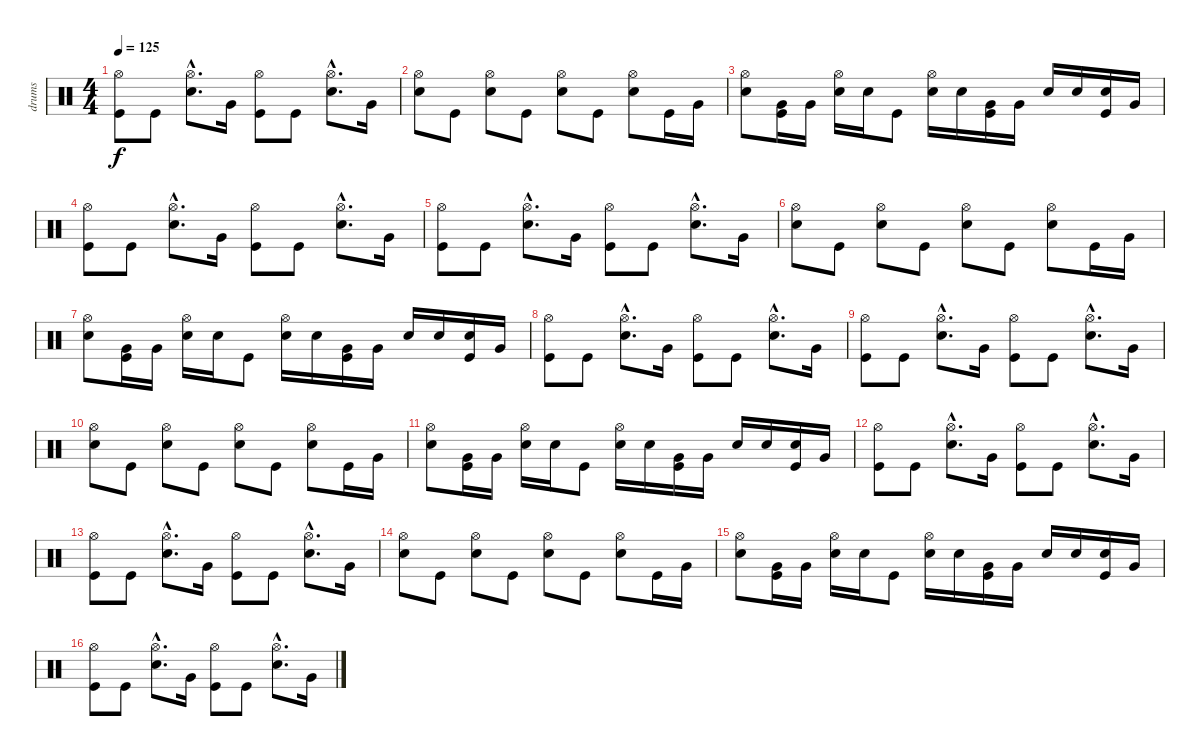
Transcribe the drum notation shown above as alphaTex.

\track ("drums" "drums") {instrument percussion}
\staff {score}
\articulation defaults
\ts (4 4)
\tempo 125
\clef neutral
\ks c
("Hi-Hat (open)" "Kick (hit)").8{dy f} "Kick (hit)".8 ("Hi-Hat (open)"{hac} "Electric Snare (hit)"{hac}).8{d} "Very Low Tom (hit)".16 ("Hi-Hat (open)" "Kick (hit)").8 "Kick (hit)".8 ("Hi-Hat (open)"{hac} "Electric Snare (hit)"{hac}).8{d} "Very Low Tom (hit)".16 |
("Hi-Hat (open)" "Electric Snare (hit)").8 "Kick (hit)".8 ("Hi-Hat (open)" "Electric Snare (hit)").8 "Kick (hit)".8 ("Hi-Hat (open)" "Electric Snare (hit)").8 "Kick (hit)".8 ("Hi-Hat (open)" "Electric Snare (hit)").8 "Kick (hit)".16 "Very Low Tom (hit)".16 |
("Hi-Hat (open)" "Electric Snare (hit)").8 ("Very Low Tom (hit)" "Kick (hit)").16 "Very Low Tom (hit)".16 ("Hi-Hat (open)" "Electric Snare (hit)").16 "Electric Snare (hit)".16 "Kick (hit)".8 ("Hi-Hat (open)" "Electric Snare (hit)").16 "Electric Snare (hit)".16 ("Very Low Tom (hit)" "Kick (hit)").16 "Very Low Tom (hit)".16 "Electric Snare (hit)".16 "Electric Snare (hit)".16 ("Electric Snare (hit)" "Kick (hit)").16 "Very Low Tom (hit)".16 |
("Hi-Hat (open)" "Kick (hit)").8 "Kick (hit)".8 ("Hi-Hat (open)"{hac} "Electric Snare (hit)"{hac}).8{d} "Very Low Tom (hit)".16 ("Hi-Hat (open)" "Kick (hit)").8 "Kick (hit)".8 ("Hi-Hat (open)"{hac} "Electric Snare (hit)"{hac}).8{d} "Very Low Tom (hit)".16 |
("Hi-Hat (open)" "Kick (hit)").8 "Kick (hit)".8 ("Hi-Hat (open)"{hac} "Electric Snare (hit)"{hac}).8{d} "Very Low Tom (hit)".16 ("Hi-Hat (open)" "Kick (hit)").8 "Kick (hit)".8 ("Hi-Hat (open)"{hac} "Electric Snare (hit)"{hac}).8{d} "Very Low Tom (hit)".16 |
("Hi-Hat (open)" "Electric Snare (hit)").8 "Kick (hit)".8 ("Hi-Hat (open)" "Electric Snare (hit)").8 "Kick (hit)".8 ("Hi-Hat (open)" "Electric Snare (hit)").8 "Kick (hit)".8 ("Hi-Hat (open)" "Electric Snare (hit)").8 "Kick (hit)".16 "Very Low Tom (hit)".16 |
("Hi-Hat (open)" "Electric Snare (hit)").8 ("Very Low Tom (hit)" "Kick (hit)").16 "Very Low Tom (hit)".16 ("Hi-Hat (open)" "Electric Snare (hit)").16 "Electric Snare (hit)".16 "Kick (hit)".8 ("Hi-Hat (open)" "Electric Snare (hit)").16 "Electric Snare (hit)".16 ("Very Low Tom (hit)" "Kick (hit)").16 "Very Low Tom (hit)".16 "Electric Snare (hit)".16 "Electric Snare (hit)".16 ("Electric Snare (hit)" "Kick (hit)").16 "Very Low Tom (hit)".16 |
\section ("" "")
("Hi-Hat (open)" "Kick (hit)").8 "Kick (hit)".8 ("Hi-Hat (open)"{hac} "Electric Snare (hit)"{hac}).8{d} "Very Low Tom (hit)".16 ("Hi-Hat (open)" "Kick (hit)").8 "Kick (hit)".8 ("Hi-Hat (open)"{hac} "Electric Snare (hit)"{hac}).8{d} "Very Low Tom (hit)".16 |
("Hi-Hat (open)" "Kick (hit)").8 "Kick (hit)".8 ("Hi-Hat (open)"{hac} "Electric Snare (hit)"{hac}).8{d} "Very Low Tom (hit)".16 ("Hi-Hat (open)" "Kick (hit)").8 "Kick (hit)".8 ("Hi-Hat (open)"{hac} "Electric Snare (hit)"{hac}).8{d} "Very Low Tom (hit)".16 |
("Hi-Hat (open)" "Electric Snare (hit)").8 "Kick (hit)".8 ("Hi-Hat (open)" "Electric Snare (hit)").8 "Kick (hit)".8 ("Hi-Hat (open)" "Electric Snare (hit)").8 "Kick (hit)".8 ("Hi-Hat (open)" "Electric Snare (hit)").8 "Kick (hit)".16 "Very Low Tom (hit)".16 |
("Hi-Hat (open)" "Electric Snare (hit)").8 ("Very Low Tom (hit)" "Kick (hit)").16 "Very Low Tom (hit)".16 ("Hi-Hat (open)" "Electric Snare (hit)").16 "Electric Snare (hit)".16 "Kick (hit)".8 ("Hi-Hat (open)" "Electric Snare (hit)").16 "Electric Snare (hit)".16 ("Very Low Tom (hit)" "Kick (hit)").16 "Very Low Tom (hit)".16 "Electric Snare (hit)".16 "Electric Snare (hit)".16 ("Electric Snare (hit)" "Kick (hit)").16 "Very Low Tom (hit)".16 |
("Hi-Hat (open)" "Kick (hit)").8 "Kick (hit)".8 ("Hi-Hat (open)"{hac} "Electric Snare (hit)"{hac}).8{d} "Very Low Tom (hit)".16 ("Hi-Hat (open)" "Kick (hit)").8 "Kick (hit)".8 ("Hi-Hat (open)"{hac} "Electric Snare (hit)"{hac}).8{d} "Very Low Tom (hit)".16 |
("Hi-Hat (open)" "Kick (hit)").8 "Kick (hit)".8 ("Hi-Hat (open)"{hac} "Electric Snare (hit)"{hac}).8{d} "Very Low Tom (hit)".16 ("Hi-Hat (open)" "Kick (hit)").8 "Kick (hit)".8 ("Hi-Hat (open)"{hac} "Electric Snare (hit)"{hac}).8{d} "Very Low Tom (hit)".16 |
("Hi-Hat (open)" "Electric Snare (hit)").8 "Kick (hit)".8 ("Hi-Hat (open)" "Electric Snare (hit)").8 "Kick (hit)".8 ("Hi-Hat (open)" "Electric Snare (hit)").8 "Kick (hit)".8 ("Hi-Hat (open)" "Electric Snare (hit)").8 "Kick (hit)".16 "Very Low Tom (hit)".16 |
("Hi-Hat (open)" "Electric Snare (hit)").8 ("Very Low Tom (hit)" "Kick (hit)").16 "Very Low Tom (hit)".16 ("Hi-Hat (open)" "Electric Snare (hit)").16 "Electric Snare (hit)".16 "Kick (hit)".8 ("Hi-Hat (open)" "Electric Snare (hit)").16 "Electric Snare (hit)".16 ("Very Low Tom (hit)" "Kick (hit)").16 "Very Low Tom (hit)".16 "Electric Snare (hit)".16 "Electric Snare (hit)".16 ("Electric Snare (hit)" "Kick (hit)").16 "Very Low Tom (hit)".16 |
\section ("" "")
("Hi-Hat (open)" "Kick (hit)").8 "Kick (hit)".8 ("Hi-Hat (open)"{hac} "Electric Snare (hit)"{hac}).8{d} "Very Low Tom (hit)".16 ("Hi-Hat (open)" "Kick (hit)").8 "Kick (hit)".8 ("Hi-Hat (open)"{hac} "Electric Snare (hit)"{hac}).8{d} "Very Low Tom (hit)".16
